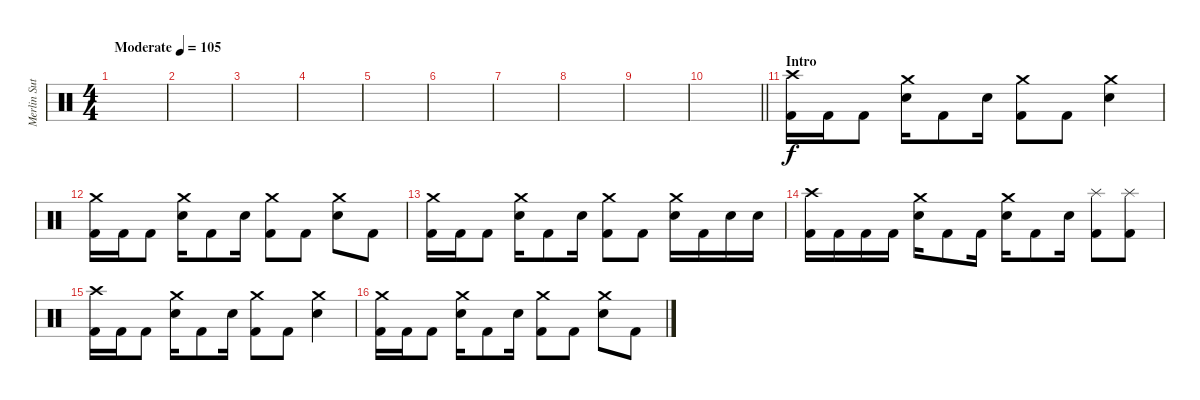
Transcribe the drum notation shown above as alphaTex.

\track ("Merlin Sutter" "Merlin Sut") {instrument percussion}
\staff {score}
\articulation defaults
\ts (4 4)
\tempo (105 "Moderate")
\clef neutral
\ks c
|
|
|
|
|
|
|
|
|
\barLineRight lightlight
|
\section ("" "Intro")
("Crash high (hit)" "Kick (hit) 2").16 "Kick (hit) 2".16 "Kick (hit) 2".8 ("Crash medium (hit)" "Electric Snare (hit)").16 "Kick (hit) 2".8 "Electric Snare (hit)".16 ("Crash medium (hit)" "Kick (hit) 2").8 "Kick (hit) 2".8 ("Crash medium (hit)" "Electric Snare (hit)").4 |
("Crash medium (hit)" "Kick (hit) 2").16 "Kick (hit) 2".16 "Kick (hit) 2".8 ("Crash medium (hit)" "Electric Snare (hit)").16 "Kick (hit) 2".8 "Electric Snare (hit)".16 ("Crash medium (hit)" "Kick (hit) 2").8 "Kick (hit) 2".8 ("Crash medium (hit)" "Electric Snare (hit)").8 "Kick (hit) 2".8 |
("Crash medium (hit)" "Kick (hit) 2").16 "Kick (hit) 2".16 "Kick (hit) 2".8 ("Crash medium (hit)" "Electric Snare (hit)").16 "Kick (hit) 2".8 "Electric Snare (hit)".16 ("Crash medium (hit)" "Kick (hit) 2").8 "Kick (hit) 2".8 ("Crash medium (hit)" "Electric Snare (hit)").16 "Kick (hit) 2".16 "Electric Snare (hit)".16 "Electric Snare (hit)".16 |
("Crash high (hit)" "Kick (hit) 2").16 "Kick (hit) 2".16 "Kick (hit) 2".16 "Kick (hit) 2".16 ("Crash medium (hit)" "Electric Snare (hit)").16 "Kick (hit) 2".8 "Kick (hit) 2".16 ("Crash medium (hit)" "Electric Snare (hit)").16 "Kick (hit) 2".8 "Electric Snare (hit)".16 ("Splash (hit)" "Kick (hit) 2").8 ("Splash (hit)" "Kick (hit) 2").8 |
("Crash high (hit)" "Kick (hit) 2").16 "Kick (hit) 2".16 "Kick (hit) 2".8 ("Crash medium (hit)" "Electric Snare (hit)").16 "Kick (hit) 2".8 "Electric Snare (hit)".16 ("Crash medium (hit)" "Kick (hit) 2").8 "Kick (hit) 2".8 ("Crash medium (hit)" "Electric Snare (hit)").4 |
("Crash medium (hit)" "Kick (hit) 2").16 "Kick (hit) 2".16 "Kick (hit) 2".8 ("Crash medium (hit)" "Electric Snare (hit)").16 "Kick (hit) 2".8 "Electric Snare (hit)".16 ("Crash medium (hit)" "Kick (hit) 2").8 "Kick (hit) 2".8 ("Crash medium (hit)" "Electric Snare (hit)").8 "Kick (hit) 2".8
